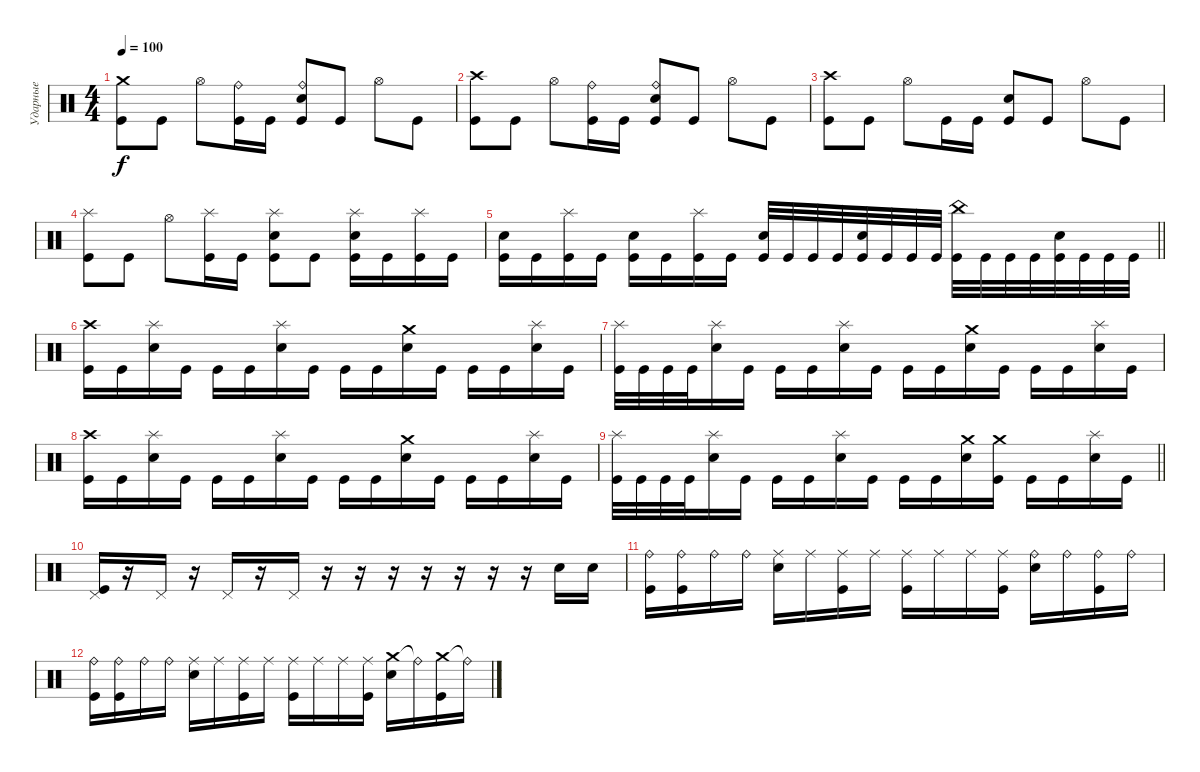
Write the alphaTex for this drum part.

\track ("Ударные" "Ударные") {instrument percussion}
\staff {score}
\articulation defaults
\ts (4 4)
\tempo 100
\clef neutral
\ks c
("Crash medium (hit)" "Kick (hit)").8{dy f} "Kick (hit)".8 "Hi-Hat (open)".8 ("Ride (bell)" "Kick (hit)").16 "Kick (hit)".16 ("Ride (bell)" "Electric Snare (hit)" "Kick (hit)").8 "Kick (hit)".8 "Hi-Hat (open)".8 "Kick (hit)".8 |
("Crash high (hit)" "Kick (hit)").8 "Kick (hit)".8 "Hi-Hat (open)".8 ("Ride (bell)" "Kick (hit)").16 "Kick (hit)".16 ("Ride (bell)" "Electric Snare (hit)" "Kick (hit)").8 "Kick (hit)".8 "Hi-Hat (open)".8 "Kick (hit)".8 |
("Crash high (hit)" "Kick (hit)").8 "Kick (hit)".8 "Hi-Hat (open)".8 "Kick (hit)".16 "Kick (hit)".16 ("Electric Snare (hit)" "Kick (hit)").8 "Kick (hit)".8 "Hi-Hat (open)".8 "Kick (hit)".8 |
("Splash (hit)" "Kick (hit)").8 "Kick (hit)".8 "Hi-Hat (open)".8 ("Splash (hit)" "Kick (hit)").16 "Kick (hit)".16 ("Splash (hit)" "Electric Snare (hit)" "Kick (hit)").8 "Kick (hit)".8 ("Splash (hit)" "Electric Snare (hit)" "Kick (hit)").16 "Kick (hit)".16 ("Splash (hit)" "Kick (hit)").16 "Kick (hit)".16 |
\barLineRight lightlight
("Electric Snare (hit)" "Kick (hit)").16 "Kick (hit)".16 ("Splash (hit)" "Kick (hit)").16 "Kick (hit)".16 ("Electric Snare (hit)" "Kick (hit)").16 "Kick (hit)".16 ("Splash (hit)" "Kick (hit)").16 "Kick (hit)".16 ("Electric Snare (hit)" "Kick (hit)").32 "Kick (hit)".32 "Kick (hit)".32 "Kick (hit)".32 ("Electric Snare (hit)" "Kick (hit)").32 "Kick (hit)".32 "Kick (hit)".32 "Kick (hit)".32 ("China (hit)" "Kick (hit)").32 "Kick (hit)".32 "Kick (hit)".32 "Kick (hit)".32 ("Electric Snare (hit)" "Kick (hit)").32 "Kick (hit)".32 "Kick (hit)".32 "Kick (hit)".32 |
\section ("" " ")
("Crash high (hit)" "Kick (hit)").16 "Kick (hit)".16 ("Electric Snare (hit)" "Splash (hit)").16 "Kick (hit)".16 "Kick (hit)".16 "Kick (hit)".16 ("Electric Snare (hit)" "Splash (hit)").16 "Kick (hit)".16 "Kick (hit)".16 "Kick (hit)".16 ("Crash medium (hit)" "Electric Snare (hit)").16 "Kick (hit)".16 "Kick (hit)".16 "Kick (hit)".16 ("Electric Snare (hit)" "Splash (hit)").16 "Kick (hit)".16 |
("Splash (hit)" "Kick (hit)").32 "Kick (hit)".32 "Kick (hit)".32 "Kick (hit)".32 ("Electric Snare (hit)" "Splash (hit)").16 "Kick (hit)".16 "Kick (hit)".16 "Kick (hit)".16 ("Electric Snare (hit)" "Splash (hit)").16 "Kick (hit)".16 "Kick (hit)".16 "Kick (hit)".16 ("Crash medium (hit)" "Electric Snare (hit)").16 "Kick (hit)".16 "Kick (hit)".16 "Kick (hit)".16 ("Electric Snare (hit)" "Splash (hit)").16 "Kick (hit)".16 |
("Crash high (hit)" "Kick (hit)").16 "Kick (hit)".16 ("Electric Snare (hit)" "Splash (hit)").16 "Kick (hit)".16 "Kick (hit)".16 "Kick (hit)".16 ("Electric Snare (hit)" "Splash (hit)").16 "Kick (hit)".16 "Kick (hit)".16 "Kick (hit)".16 ("Crash medium (hit)" "Electric Snare (hit)").16 "Kick (hit)".16 "Kick (hit)".16 "Kick (hit)".16 ("Electric Snare (hit)" "Splash (hit)").16 "Kick (hit)".16 |
\barLineRight lightlight
("Splash (hit)" "Kick (hit)").32 "Kick (hit)".32 "Kick (hit)".32 "Kick (hit)".32 ("Electric Snare (hit)" "Splash (hit)").16 "Kick (hit)".16 "Kick (hit)".16 "Kick (hit)".16 ("Electric Snare (hit)" "Splash (hit)").16 "Kick (hit)".16 "Kick (hit)".16 "Kick (hit)".16 ("Crash medium (hit)" "Electric Snare (hit)").16 ("Crash medium (hit)" "Kick (hit)").16 "Kick (hit)".16 "Kick (hit)".16 ("Electric Snare (hit)" "Splash (hit)").16 "Kick (hit)".16 |
\section ("" " ")
("Pedal Hi-Hat (hit)" "Kick (hit)").16 r.16 "Pedal Hi-Hat (hit)".16 r.16 "Pedal Hi-Hat (hit)".16 r.16 "Pedal Hi-Hat (hit)".16 r.16 r.16 r.16 r.16 r.16 r.16 r.16 "Electric Snare (hit)".16 "Electric Snare (hit)".16 |
("Ride (bell)" "Kick (hit)").16 ("Ride (bell)" "Kick (hit)").16 "Ride (bell)".16 "Ride (bell)".16 ("Ride (middle)" "Electric Snare (hit)").16 "Ride (middle)".16 ("Ride (middle)" "Kick (hit)").16 "Ride (middle)".16 ("Ride (middle)" "Kick (hit)").16 "Ride (middle)".16 "Ride (middle)".16 ("Ride (middle)" "Kick (hit)").16 ("Ride (bell)" "Electric Snare (hit)").16 "Ride (bell)".16 ("Ride (bell)" "Kick (hit)").16 "Ride (bell)".16 |
("Ride (bell)" "Kick (hit)").16 ("Ride (bell)" "Kick (hit)").16 "Ride (bell)".16 "Ride (bell)".16 ("Ride (middle)" "Electric Snare (hit)").16 "Ride (middle)".16 ("Ride (middle)" "Kick (hit)").16 "Ride (middle)".16 ("Ride (middle)" "Kick (hit)").16 "Ride (middle)".16 "Ride (middle)".16 ("Ride (middle)" "Kick (hit)").16 ("Crash medium (hit)" "Electric Snare (hit)").16 "Ride (bell)"{t}.16 ("Crash medium (hit)" "Kick (hit)").16 "Ride (bell)"{t}.16
